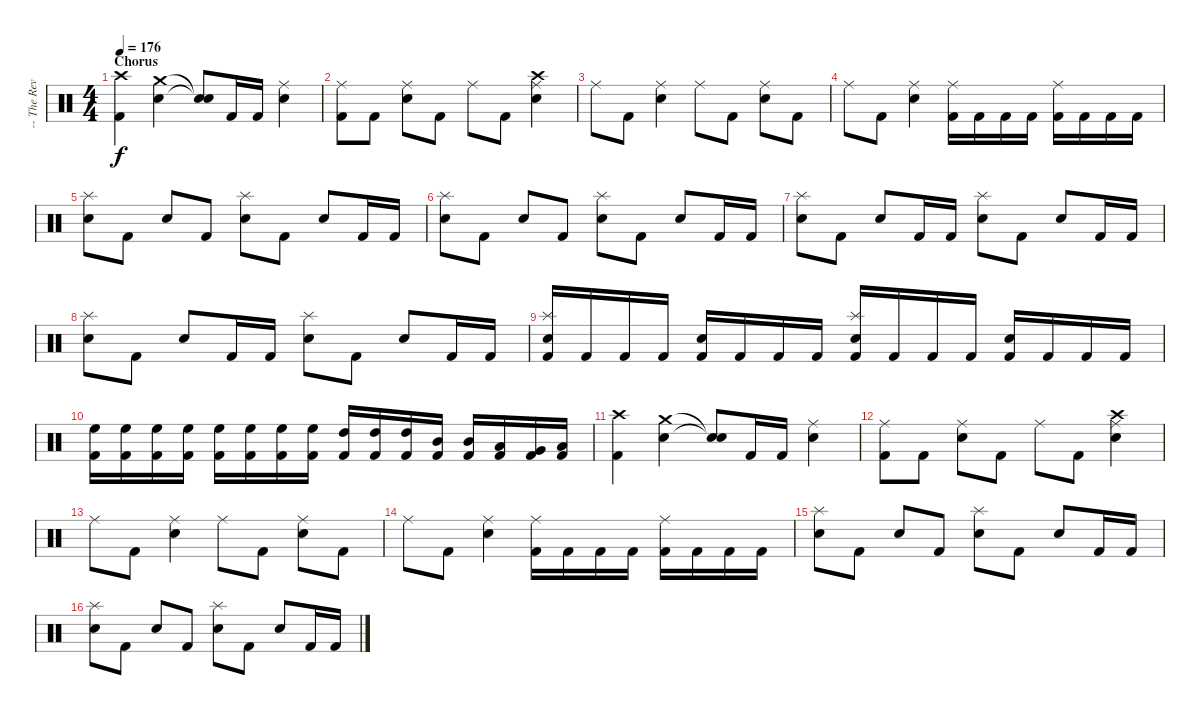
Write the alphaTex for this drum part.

\track ("-- The Reverend - Drums" "-- The Rev") {instrument percussion}
\staff {score}
\articulation defaults
\ts (4 4)
\section ("" "Chorus")
\tempo 176
\clef neutral
\ks c
("Crash high (hit)" "Kick (hit) 2").4{dy f} ("Crash medium (hit)" "Snare (hit) 2").4 ("Snare (hit)"{t} "Snare (hit)"{t}).8 "Kick (hit) 2".16 "Kick (hit) 2".16 ("Ride (middle)" "Snare (hit) 2").4 |
("Ride (middle)" "Kick (hit) 2").8 "Kick (hit) 2".8 ("Ride (middle)" "Snare (hit) 2").8 "Kick (hit) 2".8 "Ride (middle)".8 "Kick (hit) 2".8 ("Crash high (hit)" "Ride (middle)" "Snare (hit) 2").4 |
"Ride (middle)".8 "Kick (hit) 2".8 ("Ride (middle)" "Snare (hit) 2").4 "Ride (middle)".8 "Kick (hit) 2".8 ("Ride (middle)" "Snare (hit) 2").8 "Kick (hit) 2".8 |
"Ride (middle)".8 "Kick (hit) 2".8 ("Ride (middle)" "Snare (hit) 2").4 ("Ride (middle)" "Kick (hit) 2").16 "Kick (hit) 2".16 "Kick (hit) 2".16 "Kick (hit) 2".16 ("Ride (middle)" "Kick (hit) 2").16 "Kick (hit) 2".16 "Kick (hit) 2".16 "Kick (hit) 2".16 |
("Splash (hit)" "Electric Snare (hit)").8 "Kick (hit) 2".8 "Electric Snare (hit)".8 "Kick (hit) 2".8 ("Splash (hit)" "Electric Snare (hit)").8 "Kick (hit) 2".8 "Electric Snare (hit)".8 "Kick (hit) 2".16 "Kick (hit) 2".16 |
("Splash (hit)" "Electric Snare (hit)").8 "Kick (hit) 2".8 "Electric Snare (hit)".8 "Kick (hit) 2".8 ("Splash (hit)" "Electric Snare (hit)").8 "Kick (hit) 2".8 "Electric Snare (hit)".8 "Kick (hit) 2".16 "Kick (hit) 2".16 |
("Splash (hit)" "Electric Snare (hit)").8 "Kick (hit) 2".8 "Electric Snare (hit)".8 "Kick (hit) 2".16 "Kick (hit) 2".16 ("Splash (hit)" "Electric Snare (hit)").8 "Kick (hit) 2".8 "Electric Snare (hit)".8 "Kick (hit) 2".16 "Kick (hit) 2".16 |
("Splash (hit)" "Electric Snare (hit)").8 "Kick (hit) 2".8 "Electric Snare (hit)".8 "Kick (hit) 2".16 "Kick (hit) 2".16 ("Splash (hit)" "Electric Snare (hit)").8 "Kick (hit) 2".8 "Electric Snare (hit)".8 "Kick (hit) 2".16 "Kick (hit) 2".16 |
("Splash (hit)" "Electric Snare (hit)" "Kick (hit) 2").16 "Kick (hit) 2".16 "Kick (hit) 2".16 "Kick (hit) 2".16 ("Electric Snare (hit)" "Kick (hit) 2").16 "Kick (hit) 2".16 "Kick (hit) 2".16 "Kick (hit) 2".16 ("Splash (hit)" "Electric Snare (hit)" "Kick (hit) 2").16 "Kick (hit) 2".16 "Kick (hit) 2".16 "Kick (hit) 2".16 ("Electric Snare (hit)" "Kick (hit) 2").16 "Kick (hit) 2".16 "Kick (hit) 2".16 "Kick (hit) 2".16 |
("High Floor Tom (hit)" "Kick (hit) 2").16 ("High Floor Tom (hit)" "Kick (hit) 2").16 ("High Floor Tom (hit)" "Kick (hit) 2").16 ("High Floor Tom (hit)" "Kick (hit) 2").16 ("High Floor Tom (hit)" "Kick (hit) 2").16 ("High Floor Tom (hit)" "Kick (hit) 2").16 ("High Floor Tom (hit)" "Kick (hit) 2").16 ("High Floor Tom (hit)" "Kick (hit) 2").16 ("High Tom (hit)" "Kick (hit) 2").16 ("High Tom (hit)" "Kick (hit) 2").16 ("High Tom (hit)" "Kick (hit) 2").16 ("Mid Tom (hit)" "Kick (hit) 2").16 ("Mid Tom (hit)" "Kick (hit) 2").16 ("Low Tom (hit)" "Kick (hit) 2").16 ("Very Low Tom (hit)" "Kick (hit) 2").16 ("Low Floor Tom (hit)" "Kick (hit) 2").16 |
("Crash high (hit)" "Kick (hit) 2").4 ("Crash medium (hit)" "Snare (hit) 2").4 ("Snare (hit)"{t} "Snare (hit)"{t}).8 "Kick (hit) 2".16 "Kick (hit) 2".16 ("Ride (middle)" "Snare (hit) 2").4 |
("Ride (middle)" "Kick (hit) 2").8 "Kick (hit) 2".8 ("Ride (middle)" "Snare (hit) 2").8 "Kick (hit) 2".8 "Ride (middle)".8 "Kick (hit) 2".8 ("Crash high (hit)" "Ride (middle)" "Snare (hit) 2").4 |
"Ride (middle)".8 "Kick (hit) 2".8 ("Ride (middle)" "Snare (hit) 2").4 "Ride (middle)".8 "Kick (hit) 2".8 ("Ride (middle)" "Snare (hit) 2").8 "Kick (hit) 2".8 |
"Ride (middle)".8 "Kick (hit) 2".8 ("Ride (middle)" "Snare (hit) 2").4 ("Ride (middle)" "Kick (hit) 2").16 "Kick (hit) 2".16 "Kick (hit) 2".16 "Kick (hit) 2".16 ("Ride (middle)" "Kick (hit) 2").16 "Kick (hit) 2".16 "Kick (hit) 2".16 "Kick (hit) 2".16 |
("Splash (hit)" "Electric Snare (hit)").8 "Kick (hit) 2".8 "Electric Snare (hit)".8 "Kick (hit) 2".8 ("Splash (hit)" "Electric Snare (hit)").8 "Kick (hit) 2".8 "Electric Snare (hit)".8 "Kick (hit) 2".16 "Kick (hit) 2".16 |
("Splash (hit)" "Electric Snare (hit)").8 "Kick (hit) 2".8 "Electric Snare (hit)".8 "Kick (hit) 2".8 ("Splash (hit)" "Electric Snare (hit)").8 "Kick (hit) 2".8 "Electric Snare (hit)".8 "Kick (hit) 2".16 "Kick (hit) 2".16
